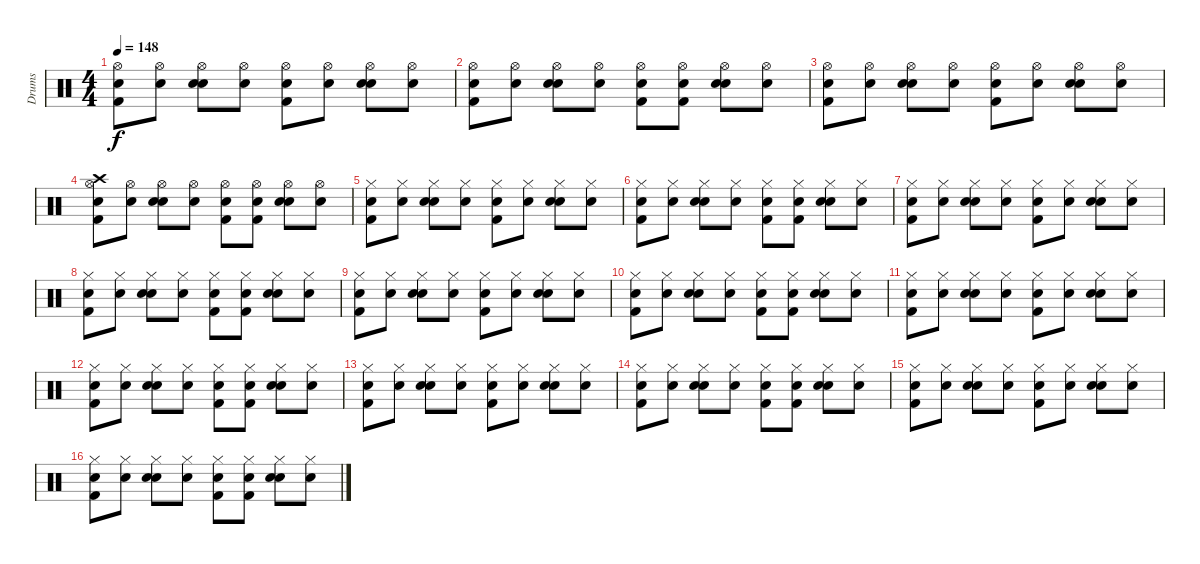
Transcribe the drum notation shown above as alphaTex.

\track ("Drums" "Drums") {instrument percussion}
\staff {score}
\articulation defaults
\ts (4 4)
\tempo 148
\clef neutral
\ks c
("Snare (hit)" "Kick (hit) 2" "Hi-Hat (open)").8{dy f} ("Snare (hit)" "Hi-Hat (open)").8 ("Snare (hit)" "Snare (hit) 2" "Hi-Hat (open)").8 ("Snare (hit)" "Hi-Hat (open)").8 ("Snare (hit)" "Kick (hit) 2" "Hi-Hat (open)").8 ("Snare (hit)" "Hi-Hat (open)").8 ("Snare (hit)" "Snare (hit) 2" "Hi-Hat (open)").8 ("Snare (hit)" "Hi-Hat (open)").8 |
("Snare (hit)" "Kick (hit) 2" "Hi-Hat (open)").8 ("Snare (hit)" "Hi-Hat (open)").8 ("Snare (hit)" "Snare (hit) 2" "Hi-Hat (open)").8 ("Snare (hit)" "Hi-Hat (open)").8 ("Snare (hit)" "Kick (hit) 2" "Hi-Hat (open)").8 ("Snare (hit)" "Kick (hit) 2" "Hi-Hat (open)").8 ("Snare (hit)" "Snare (hit) 2" "Hi-Hat (open)").8 ("Snare (hit)" "Hi-Hat (open)").8 |
("Snare (hit)" "Kick (hit) 2" "Hi-Hat (open)").8 ("Snare (hit)" "Hi-Hat (open)").8 ("Snare (hit)" "Snare (hit) 2" "Hi-Hat (open)").8 ("Snare (hit)" "Hi-Hat (open)").8 ("Snare (hit)" "Kick (hit) 2" "Hi-Hat (open)").8 ("Snare (hit)" "Hi-Hat (open)").8 ("Snare (hit)" "Snare (hit) 2" "Hi-Hat (open)").8 ("Snare (hit)" "Hi-Hat (open)").8 |
("Snare (hit)" "Kick (hit) 2" "Hi-Hat (open)" "Crash high (hit)").8 ("Snare (hit)" "Hi-Hat (open)").8 ("Snare (hit)" "Snare (hit) 2" "Hi-Hat (open)").8 ("Snare (hit)" "Hi-Hat (open)").8 ("Snare (hit)" "Kick (hit) 2" "Hi-Hat (open)").8 ("Snare (hit)" "Kick (hit) 2" "Hi-Hat (open)").8 ("Snare (hit)" "Snare (hit) 2" "Hi-Hat (open)").8 ("Snare (hit)" "Hi-Hat (open)").8 |
("Snare (hit)" "Kick (hit) 2" "Hi-Hat (closed)").8 ("Snare (hit)" "Hi-Hat (closed)").8 ("Snare (hit)" "Snare (hit) 2" "Hi-Hat (closed)").8 ("Snare (hit)" "Hi-Hat (closed)").8 ("Snare (hit)" "Kick (hit) 2" "Hi-Hat (closed)").8 ("Snare (hit)" "Hi-Hat (closed)").8 ("Snare (hit)" "Snare (hit) 2" "Hi-Hat (closed)").8 ("Snare (hit)" "Hi-Hat (closed)").8 |
("Snare (hit)" "Kick (hit) 2" "Hi-Hat (closed)").8 ("Snare (hit)" "Hi-Hat (closed)").8 ("Snare (hit)" "Snare (hit) 2" "Hi-Hat (closed)").8 ("Snare (hit)" "Hi-Hat (closed)").8 ("Snare (hit)" "Kick (hit) 2" "Hi-Hat (closed)").8 ("Snare (hit)" "Kick (hit) 2" "Hi-Hat (closed)").8 ("Snare (hit)" "Snare (hit) 2" "Hi-Hat (closed)").8 ("Snare (hit)" "Hi-Hat (closed)").8 |
("Snare (hit)" "Kick (hit) 2" "Hi-Hat (closed)").8 ("Snare (hit)" "Hi-Hat (closed)").8 ("Snare (hit)" "Snare (hit) 2" "Hi-Hat (closed)").8 ("Snare (hit)" "Hi-Hat (closed)").8 ("Snare (hit)" "Kick (hit) 2" "Hi-Hat (closed)").8 ("Snare (hit)" "Hi-Hat (closed)").8 ("Snare (hit)" "Snare (hit) 2" "Hi-Hat (closed)").8 ("Snare (hit)" "Hi-Hat (closed)").8 |
("Snare (hit)" "Kick (hit) 2" "Hi-Hat (closed)").8 ("Snare (hit)" "Hi-Hat (closed)").8 ("Snare (hit)" "Snare (hit) 2" "Hi-Hat (closed)").8 ("Snare (hit)" "Hi-Hat (closed)").8 ("Snare (hit)" "Kick (hit) 2" "Hi-Hat (closed)").8 ("Snare (hit)" "Kick (hit) 2" "Hi-Hat (closed)").8 ("Snare (hit)" "Snare (hit) 2" "Hi-Hat (closed)").8 ("Snare (hit)" "Hi-Hat (closed)").8 |
("Snare (hit)" "Kick (hit) 2" "Hi-Hat (closed)").8 ("Snare (hit)" "Hi-Hat (closed)").8 ("Snare (hit)" "Snare (hit) 2" "Hi-Hat (closed)").8 ("Snare (hit)" "Hi-Hat (closed)").8 ("Snare (hit)" "Kick (hit) 2" "Hi-Hat (closed)").8 ("Snare (hit)" "Hi-Hat (closed)").8 ("Snare (hit)" "Snare (hit) 2" "Hi-Hat (closed)").8 ("Snare (hit)" "Hi-Hat (closed)").8 |
("Snare (hit)" "Kick (hit) 2" "Hi-Hat (closed)").8 ("Snare (hit)" "Hi-Hat (closed)").8 ("Snare (hit)" "Snare (hit) 2" "Hi-Hat (closed)").8 ("Snare (hit)" "Hi-Hat (closed)").8 ("Snare (hit)" "Kick (hit) 2" "Hi-Hat (closed)").8 ("Snare (hit)" "Kick (hit) 2" "Hi-Hat (closed)").8 ("Snare (hit)" "Snare (hit) 2" "Hi-Hat (closed)").8 ("Snare (hit)" "Hi-Hat (closed)").8 |
("Snare (hit)" "Kick (hit) 2" "Hi-Hat (closed)").8 ("Snare (hit)" "Hi-Hat (closed)").8 ("Snare (hit)" "Snare (hit) 2" "Hi-Hat (closed)").8 ("Snare (hit)" "Hi-Hat (closed)").8 ("Snare (hit)" "Kick (hit) 2" "Hi-Hat (closed)").8 ("Snare (hit)" "Hi-Hat (closed)").8 ("Snare (hit)" "Snare (hit) 2" "Hi-Hat (closed)").8 ("Snare (hit)" "Hi-Hat (closed)").8 |
("Snare (hit)" "Kick (hit) 2" "Hi-Hat (closed)").8 ("Snare (hit)" "Hi-Hat (closed)").8 ("Snare (hit)" "Snare (hit) 2" "Hi-Hat (closed)").8 ("Snare (hit)" "Hi-Hat (closed)").8 ("Snare (hit)" "Kick (hit) 2" "Hi-Hat (closed)").8 ("Snare (hit)" "Kick (hit) 2" "Hi-Hat (closed)").8 ("Snare (hit)" "Snare (hit) 2" "Hi-Hat (closed)").8 ("Snare (hit)" "Hi-Hat (closed)").8 |
("Snare (hit)" "Kick (hit) 2" "Hi-Hat (closed)").8 ("Snare (hit)" "Hi-Hat (closed)").8 ("Snare (hit)" "Snare (hit) 2" "Hi-Hat (closed)").8 ("Snare (hit)" "Hi-Hat (closed)").8 ("Snare (hit)" "Kick (hit) 2" "Hi-Hat (closed)").8 ("Snare (hit)" "Hi-Hat (closed)").8 ("Snare (hit)" "Snare (hit) 2" "Hi-Hat (closed)").8 ("Snare (hit)" "Hi-Hat (closed)").8 |
("Snare (hit)" "Kick (hit) 2" "Hi-Hat (closed)").8 ("Snare (hit)" "Hi-Hat (closed)").8 ("Snare (hit)" "Snare (hit) 2" "Hi-Hat (closed)").8 ("Snare (hit)" "Hi-Hat (closed)").8 ("Snare (hit)" "Kick (hit) 2" "Hi-Hat (closed)").8 ("Snare (hit)" "Kick (hit) 2" "Hi-Hat (closed)").8 ("Snare (hit)" "Snare (hit) 2" "Hi-Hat (closed)").8 ("Snare (hit)" "Hi-Hat (closed)").8 |
("Snare (hit)" "Kick (hit) 2" "Hi-Hat (closed)").8 ("Snare (hit)" "Hi-Hat (closed)").8 ("Snare (hit)" "Snare (hit) 2" "Hi-Hat (closed)").8 ("Snare (hit)" "Hi-Hat (closed)").8 ("Snare (hit)" "Kick (hit) 2" "Hi-Hat (closed)").8 ("Snare (hit)" "Hi-Hat (closed)").8 ("Snare (hit)" "Snare (hit) 2" "Hi-Hat (closed)").8 ("Snare (hit)" "Hi-Hat (closed)").8 |
("Snare (hit)" "Kick (hit) 2" "Hi-Hat (closed)").8 ("Snare (hit)" "Hi-Hat (closed)").8 ("Snare (hit)" "Snare (hit) 2" "Hi-Hat (closed)").8 ("Snare (hit)" "Hi-Hat (closed)").8 ("Snare (hit)" "Kick (hit) 2" "Hi-Hat (closed)").8 ("Snare (hit)" "Kick (hit) 2" "Hi-Hat (closed)").8 ("Snare (hit)" "Snare (hit) 2" "Hi-Hat (closed)").8 ("Snare (hit)" "Hi-Hat (closed)").8
